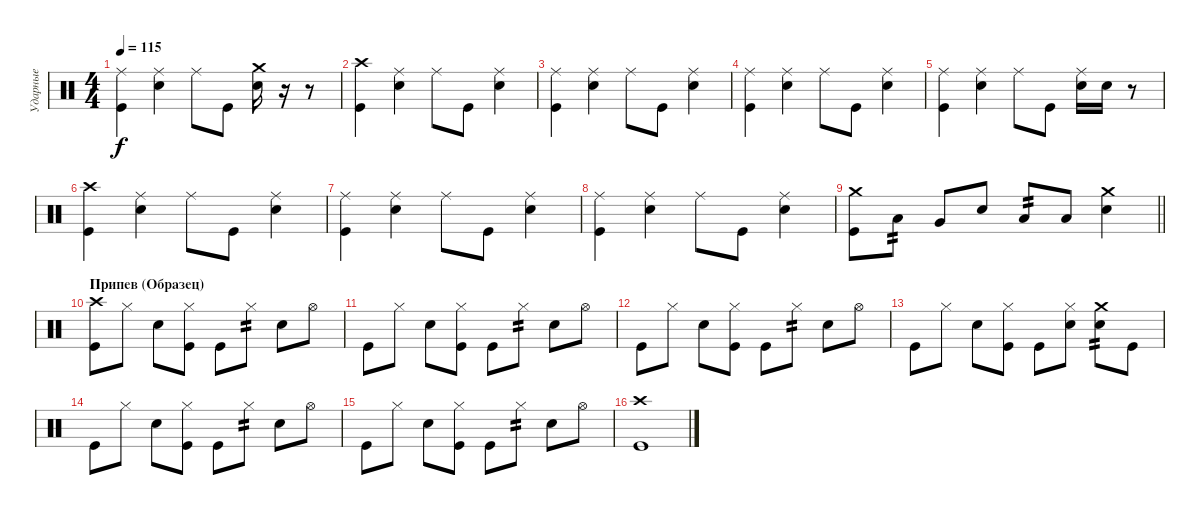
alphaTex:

\track ("Ударные" "Ударные") {instrument percussion}
\staff {score}
\articulation defaults
\ts (4 4)
\tempo 115
\clef neutral
\ks c
("Ride (middle)" "Kick (hit)").4{dy f} ("Ride (middle)" "Snare (hit) 2").4 "Ride (middle)".8 "Kick (hit)".8 ("Crash medium (hit)" "Snare (hit) 2").16 r.16 r.8 |
("Crash high (hit)" "Kick (hit)").4 ("Ride (middle)" "Snare (hit) 2").4 "Ride (middle)".8 "Kick (hit)".8 ("Ride (middle)" "Snare (hit) 2").4 |
("Ride (middle)" "Kick (hit)").4 ("Ride (middle)" "Snare (hit) 2").4 "Ride (middle)".8 "Kick (hit)".8 ("Ride (middle)" "Snare (hit) 2").4 |
("Ride (middle)" "Kick (hit)").4 ("Ride (middle)" "Snare (hit) 2").4 "Ride (middle)".8 "Kick (hit)".8 ("Ride (middle)" "Snare (hit) 2").4 |
("Ride (middle)" "Kick (hit)").4 ("Ride (middle)" "Snare (hit) 2").4 "Ride (middle)".8 "Kick (hit)".8 ("Ride (middle)" "Snare (hit) 2").16 "Snare (hit) 2".16 r.8 |
("Crash high (hit)" "Kick (hit)").4 ("Ride (middle)" "Snare (hit) 2").4 "Ride (middle)".8 "Kick (hit)".8 ("Ride (middle)" "Snare (hit) 2").4 |
("Ride (middle)" "Kick (hit)").4 ("Ride (middle)" "Snare (hit) 2").4 "Ride (middle)".8 "Kick (hit)".8 ("Ride (middle)" "Snare (hit) 2").4 |
("Ride (middle)" "Kick (hit)").4 ("Ride (middle)" "Snare (hit) 2").4 "Ride (middle)".8 "Kick (hit)".8 ("Ride (middle)" "Snare (hit) 2").4 |
\barLineRight lightlight
("Crash medium (hit)" "Kick (hit)").8 "Low Tom (hit)".8{tp 2} "Very Low Tom (hit)".8 "Snare (hit) 2".8 "Low Tom (hit)".8{tp 2} "Low Tom (hit)".8 ("Crash medium (hit)" "Snare (hit) 2").4 |
\section ("" "Припев (Образец)")
("Crash high (hit)" "Kick (hit)").8 "Hi-Hat (closed)".8 "Snare (hit) 2".8 ("Hi-Hat (closed)" "Kick (hit)").8 "Kick (hit)".8 "Hi-Hat (closed)".8{tp 2} "Snare (hit) 2".8 "Hi-Hat (open)".8 |
"Kick (hit)".8 "Hi-Hat (closed)".8 "Snare (hit) 2".8 ("Hi-Hat (closed)" "Kick (hit)").8 "Kick (hit)".8 "Hi-Hat (closed)".8{tp 2} "Snare (hit) 2".8 "Hi-Hat (open)".8 |
"Kick (hit)".8 "Hi-Hat (closed)".8 "Snare (hit) 2".8 ("Hi-Hat (closed)" "Kick (hit)").8 "Kick (hit)".8 "Hi-Hat (closed)".8{tp 2} "Snare (hit) 2".8 "Hi-Hat (open)".8 |
"Kick (hit)".8 "Hi-Hat (closed)".8 "Snare (hit) 2".8 ("Hi-Hat (closed)" "Kick (hit)").8 "Kick (hit)".8 ("Hi-Hat (closed)" "Snare (hit) 2").8 ("Crash medium (hit)" "Snare (hit) 2").8{tp 2} "Kick (hit)".8 |
"Kick (hit)".8 "Hi-Hat (closed)".8 "Snare (hit) 2".8 ("Hi-Hat (closed)" "Kick (hit)").8 "Kick (hit)".8 "Hi-Hat (closed)".8{tp 2} "Snare (hit) 2".8 "Hi-Hat (open)".8 |
"Kick (hit)".8 "Hi-Hat (closed)".8 "Snare (hit) 2".8 ("Hi-Hat (closed)" "Kick (hit)").8 "Kick (hit)".8 "Hi-Hat (closed)".8{tp 2} "Snare (hit) 2".8 "Hi-Hat (open)".8 |
("Crash high (hit)" "Kick (hit)").1
